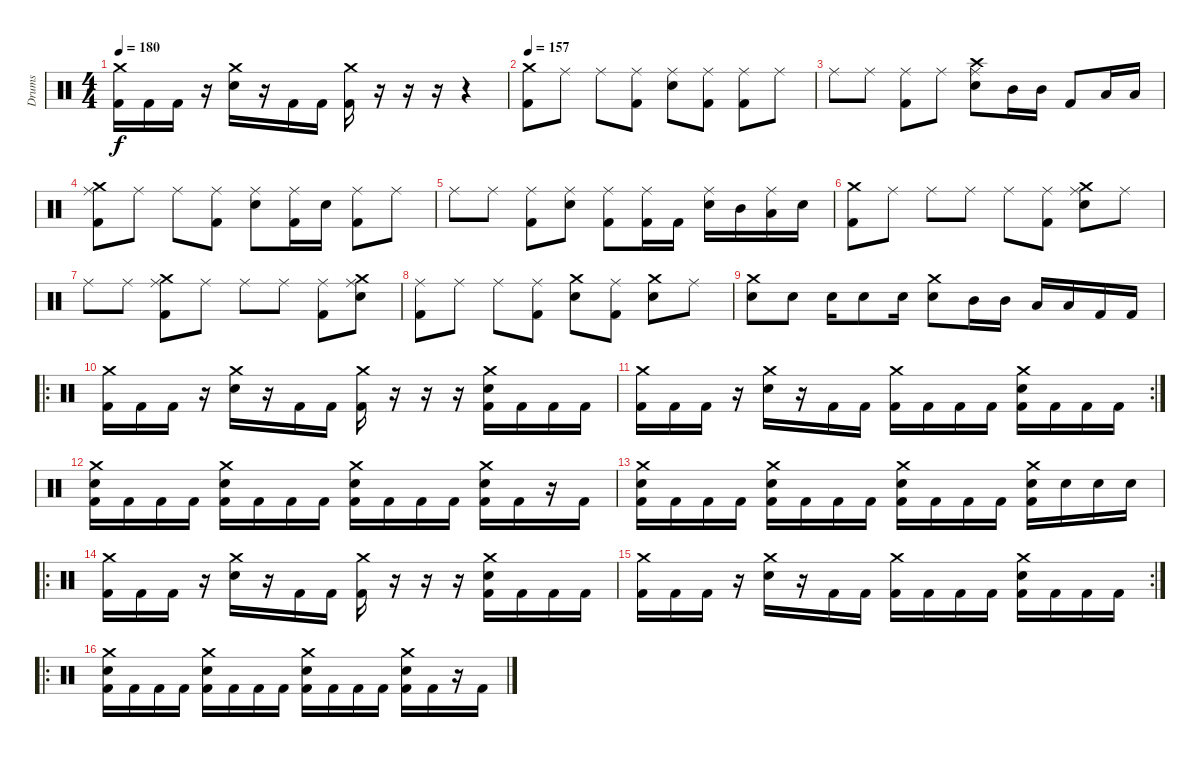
\track ("Drums" "Drums") {instrument percussion}
\staff {score}
\articulation defaults
\ts (4 4)
\tempo 180
\clef neutral
\ks c
("Crash medium (hit)" "Kick (hit) 2").16{dy f} "Kick (hit) 2".16 "Kick (hit) 2".16 r.16 ("Crash medium (hit)" "Electric Snare (hit)").16 r.16 "Kick (hit) 2".16 "Kick (hit) 2".16 ("Crash medium (hit)" "Kick (hit) 2").16 r.16 r.16 r.16 r.4 |
\tempo 157
("Crash medium (hit)" "Kick (hit) 2").8 "Ride (middle)".8 "Ride (middle)".8 ("Ride (middle)" "Kick (hit) 2").8 ("Ride (middle)" "Electric Snare (hit)").8 ("Ride (middle)" "Kick (hit) 2").8 ("Ride (middle)" "Kick (hit) 2").8 "Ride (middle)".8 |
"Ride (middle)".8 "Ride (middle)".8 ("Ride (middle)" "Kick (hit) 2").8 "Ride (middle)".8 ("Crash high (hit)" "Ride (middle)" "Electric Snare (hit)").8 "Mid Tom (hit)".16 "Mid Tom (hit)".16 "Kick (hit) 2".8 "Low Tom (hit)".16 "Low Tom (hit)".16 |
("Crash medium (hit)" "Ride (middle)" "Kick (hit) 2").8 "Ride (middle)".8 "Ride (middle)".8 ("Ride (middle)" "Kick (hit) 2").8 ("Ride (middle)" "Electric Snare (hit)").8 ("Ride (middle)" "Kick (hit) 2").16 "Electric Snare (hit)".16 ("Ride (middle)" "Kick (hit) 2").8 "Ride (middle)".8 |
"Ride (middle)".8 "Ride (middle)".8 ("Ride (middle)" "Kick (hit) 2").8 ("Ride (middle)" "Electric Snare (hit)").8 ("Ride (middle)" "Kick (hit) 2").8 ("Ride (middle)" "Kick (hit) 2").16 "Kick (hit) 2".16 ("Ride (middle)" "Electric Snare (hit)").16 "Mid Tom (hit)".16 ("Ride (middle)" "Low Tom (hit)").16 "Electric Snare (hit)".16 |
("Crash medium (hit)" "Kick (hit) 2").8 "Ride (middle)".8 "Ride (middle)".8 "Ride (middle)".8 "Ride (middle)".8 ("Ride (middle)" "Kick (hit) 2").8 ("Crash medium (hit)" "Ride (middle)" "Electric Snare (hit)").8 "Ride (middle)".8 |
"Ride (middle)".8 "Ride (middle)".8 ("Crash medium (hit)" "Ride (middle)" "Kick (hit) 2").8 "Ride (middle)".8 "Ride (middle)".8 "Ride (middle)".8 ("Ride (middle)" "Kick (hit) 2").8 ("Crash medium (hit)" "Ride (middle)" "Electric Snare (hit)").8 |
("Ride (middle)" "Kick (hit) 2").8 "Ride (middle)".8 "Ride (middle)".8 ("Ride (middle)" "Kick (hit) 2").8 ("Crash medium (hit)" "Electric Snare (hit)").8 ("Ride (middle)" "Kick (hit) 2").8 ("Crash medium (hit)" "Electric Snare (hit)").8 "Ride (middle)".8 |
("Crash medium (hit)" "Electric Snare (hit)").8 "Electric Snare (hit)".8 "Electric Snare (hit)".16 "Electric Snare (hit)".8 "Electric Snare (hit)".16 ("Crash medium (hit)" "Electric Snare (hit)").8 "Mid Tom (hit)".16 "Mid Tom (hit)".16 "Low Tom (hit)".16 "Low Tom (hit)".16 "Kick (hit) 2".16 "Kick (hit) 2".16 |
\ro
("Crash medium (hit)" "Kick (hit) 2").16 "Kick (hit) 2".16 "Kick (hit) 2".16 r.16 ("Crash medium (hit)" "Electric Snare (hit)").16 r.16 "Kick (hit) 2".16 "Kick (hit) 2".16 ("Crash medium (hit)" "Kick (hit) 2").16 r.16 r.16 r.16 ("Crash medium (hit)" "Electric Snare (hit)" "Kick (hit) 2").16 "Kick (hit) 2".16 "Kick (hit) 2".16 "Kick (hit) 2".16 |
\rc 2
("Crash medium (hit)" "Kick (hit) 2").16 "Kick (hit) 2".16 "Kick (hit) 2".16 r.16 ("Crash medium (hit)" "Electric Snare (hit)").16 r.16 "Kick (hit) 2".16 "Kick (hit) 2".16 ("Crash medium (hit)" "Kick (hit) 2").16 "Kick (hit) 2".16 "Kick (hit) 2".16 "Kick (hit) 2".16 ("Crash medium (hit)" "Electric Snare (hit)" "Kick (hit) 2").16 "Kick (hit) 2".16 "Kick (hit) 2".16 "Kick (hit) 2".16 |
("Crash medium (hit)" "Electric Snare (hit)" "Kick (hit) 2").16 "Kick (hit) 2".16 "Kick (hit) 2".16 "Kick (hit) 2".16 ("Crash medium (hit)" "Electric Snare (hit)" "Kick (hit) 2").16 "Kick (hit) 2".16 "Kick (hit) 2".16 "Kick (hit) 2".16 ("Crash medium (hit)" "Electric Snare (hit)" "Kick (hit) 2").16 "Kick (hit) 2".16 "Kick (hit) 2".16 "Kick (hit) 2".16 ("Crash medium (hit)" "Electric Snare (hit)" "Kick (hit) 2").16 "Kick (hit) 2".16 r.16 "Kick (hit) 2".16 |
("Crash medium (hit)" "Electric Snare (hit)" "Kick (hit) 2").16 "Kick (hit) 2".16 "Kick (hit) 2".16 "Kick (hit) 2".16 ("Crash medium (hit)" "Electric Snare (hit)" "Kick (hit) 2").16 "Kick (hit) 2".16 "Kick (hit) 2".16 "Kick (hit) 2".16 ("Crash medium (hit)" "Electric Snare (hit)" "Kick (hit) 2").16 "Kick (hit) 2".16 "Kick (hit) 2".16 "Kick (hit) 2".16 ("Crash medium (hit)" "Electric Snare (hit)" "Kick (hit) 2").16 "Electric Snare (hit)".16 "Electric Snare (hit)".16 "Electric Snare (hit)".16 |
\ro
("Crash medium (hit)" "Kick (hit) 2").16 "Kick (hit) 2".16 "Kick (hit) 2".16 r.16 ("Crash medium (hit)" "Electric Snare (hit)").16 r.16 "Kick (hit) 2".16 "Kick (hit) 2".16 ("Crash medium (hit)" "Kick (hit) 2").16 r.16 r.16 r.16 ("Crash medium (hit)" "Electric Snare (hit)" "Kick (hit) 2").16 "Kick (hit) 2".16 "Kick (hit) 2".16 "Kick (hit) 2".16 |
\rc 2
("Crash medium (hit)" "Kick (hit) 2").16 "Kick (hit) 2".16 "Kick (hit) 2".16 r.16 ("Crash medium (hit)" "Electric Snare (hit)").16 r.16 "Kick (hit) 2".16 "Kick (hit) 2".16 ("Crash medium (hit)" "Kick (hit) 2").16 "Kick (hit) 2".16 "Kick (hit) 2".16 "Kick (hit) 2".16 ("Crash medium (hit)" "Electric Snare (hit)" "Kick (hit) 2").16 "Kick (hit) 2".16 "Kick (hit) 2".16 "Kick (hit) 2".16 |
\ro
("Crash medium (hit)" "Electric Snare (hit)" "Kick (hit) 2").16 "Kick (hit) 2".16 "Kick (hit) 2".16 "Kick (hit) 2".16 ("Crash medium (hit)" "Electric Snare (hit)" "Kick (hit) 2").16 "Kick (hit) 2".16 "Kick (hit) 2".16 "Kick (hit) 2".16 ("Crash medium (hit)" "Electric Snare (hit)" "Kick (hit) 2").16 "Kick (hit) 2".16 "Kick (hit) 2".16 "Kick (hit) 2".16 ("Crash medium (hit)" "Electric Snare (hit)" "Kick (hit) 2").16 "Kick (hit) 2".16 r.16 "Kick (hit) 2".16
